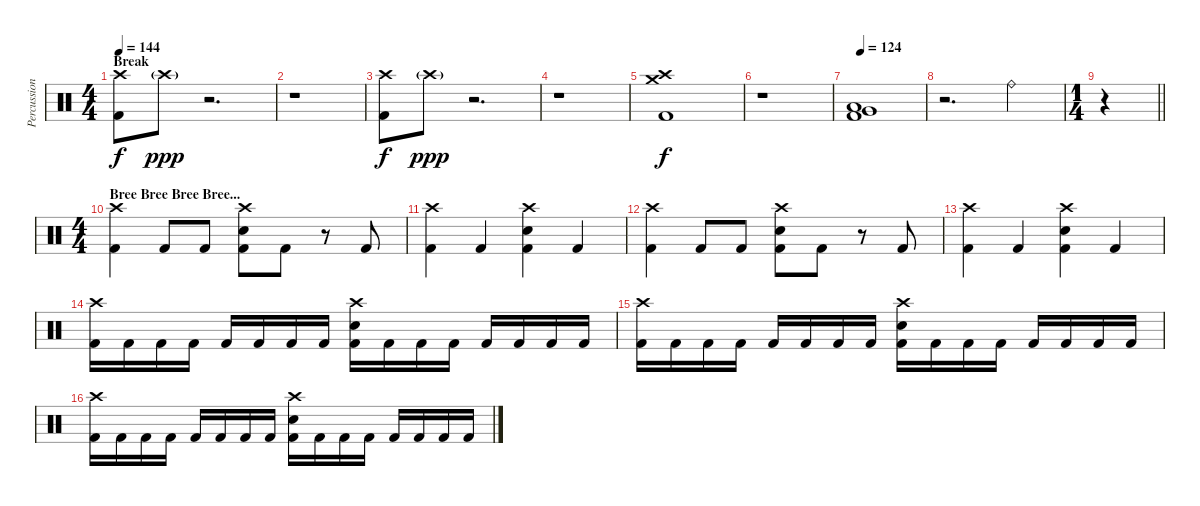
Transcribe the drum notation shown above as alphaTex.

\track ("Percussion" "Percussion") {instrument percussion}
\staff {score}
\articulation defaults
\ts (4 4)
\section ("" "Break")
\tempo 144
\clef neutral
\ks c
("Crash high (hit)" "Kick (hit) 2").8{dy f} "Crash high (hit)"{g}.8{dy ppp} r.2{d} |
r.1 |
("Crash high (hit)" "Kick (hit) 2").8{dy f} "Crash high (hit)"{g}.8{dy ppp} r.2{d} |
r.1 |
("Crash medium (hit)" "Crash high (hit)" "Kick (hit) 2").1{dy f} |
r.1 |
\tempo 124
("Low Floor Tom (hit)" "Very Low Tom (hit)" "Kick (hit) 2").1 |
r.2{d} "Ride (bell)".4 |
\ts (1 4)
\barLineRight lightlight
r.4 |
\ts (4 4)
\section ("" "Bree Bree Bree Bree...")
("Crash high (hit)" "Kick (hit) 2").4 "Kick (hit) 2".8 "Kick (hit) 2".8 ("Crash high (hit)" "Snare (hit) 2" "Kick (hit) 2").8 "Kick (hit) 2".8 r.8 "Kick (hit) 2".8 |
("Crash high (hit)" "Kick (hit) 2").4 "Kick (hit) 2".4 ("Crash high (hit)" "Snare (hit) 2" "Kick (hit) 2").4 "Kick (hit) 2".4 |
("Crash high (hit)" "Kick (hit) 2").4 "Kick (hit) 2".8 "Kick (hit) 2".8 ("Crash high (hit)" "Snare (hit) 2" "Kick (hit) 2").8 "Kick (hit) 2".8 r.8 "Kick (hit) 2".8 |
("Crash high (hit)" "Kick (hit) 2").4 "Kick (hit) 2".4 ("Crash high (hit)" "Snare (hit) 2" "Kick (hit) 2").4 "Kick (hit) 2".4 |
("Crash high (hit)" "Kick (hit) 2").16 "Kick (hit) 2".16 "Kick (hit) 2".16 "Kick (hit) 2".16 "Kick (hit) 2".16 "Kick (hit) 2".16 "Kick (hit) 2".16 "Kick (hit) 2".16 ("Crash high (hit)" "Snare (hit) 2" "Kick (hit) 2").16 "Kick (hit) 2".16 "Kick (hit) 2".16 "Kick (hit) 2".16 "Kick (hit) 2".16 "Kick (hit) 2".16 "Kick (hit) 2".16 "Kick (hit) 2".16 |
("Crash high (hit)" "Kick (hit) 2").16 "Kick (hit) 2".16 "Kick (hit) 2".16 "Kick (hit) 2".16 "Kick (hit) 2".16 "Kick (hit) 2".16 "Kick (hit) 2".16 "Kick (hit) 2".16 ("Crash high (hit)" "Snare (hit) 2" "Kick (hit) 2").16 "Kick (hit) 2".16 "Kick (hit) 2".16 "Kick (hit) 2".16 "Kick (hit) 2".16 "Kick (hit) 2".16 "Kick (hit) 2".16 "Kick (hit) 2".16 |
("Crash high (hit)" "Kick (hit) 2").16 "Kick (hit) 2".16 "Kick (hit) 2".16 "Kick (hit) 2".16 "Kick (hit) 2".16 "Kick (hit) 2".16 "Kick (hit) 2".16 "Kick (hit) 2".16 ("Crash high (hit)" "Snare (hit) 2" "Kick (hit) 2").16 "Kick (hit) 2".16 "Kick (hit) 2".16 "Kick (hit) 2".16 "Kick (hit) 2".16 "Kick (hit) 2".16 "Kick (hit) 2".16 "Kick (hit) 2".16
